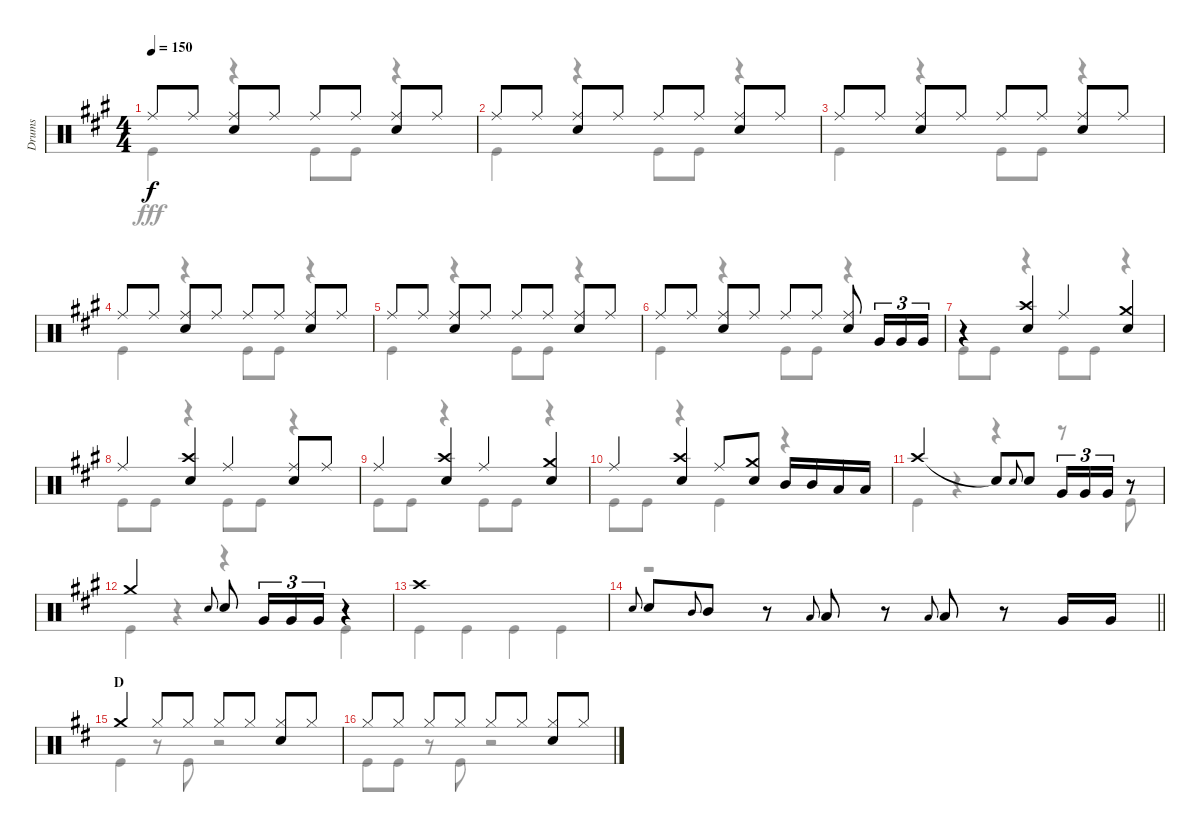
\track ("Drums" "Drums") {instrument percussion}
\staff {score}
\articulation defaults
\voice
\ts (4 4)
\tempo 150
\clef neutral
\ks a "Ride (middle)".8{dy f} "Ride (middle)".8
("Ride (middle)" "Snare (hit) 2").8 "Ride (middle)".8 "Ride (middle)".8 "Ride (middle)".8 ("Ride (middle)" "Snare (hit) 2").8 "Ride (middle)".8 |
"Ride (middle)".8 "Ride (middle)".8 ("Ride (middle)" "Snare (hit) 2").8 "Ride (middle)".8 "Ride (middle)".8 "Ride (middle)".8 ("Ride (middle)" "Snare (hit) 2").8 "Ride (middle)".8 |
"Ride (middle)".8 "Ride (middle)".8 ("Ride (middle)" "Snare (hit) 2").8 "Ride (middle)".8 "Ride (middle)".8 "Ride (middle)".8 ("Ride (middle)" "Snare (hit) 2").8 "Ride (middle)".8 |
"Ride (middle)".8 "Ride (middle)".8 ("Ride (middle)" "Snare (hit) 2").8 "Ride (middle)".8 "Ride (middle)".8 "Ride (middle)".8 ("Ride (middle)" "Snare (hit) 2").8 "Ride (middle)".8 |
"Ride (middle)".8 "Ride (middle)".8 ("Ride (middle)" "Snare (hit) 2").8 "Ride (middle)".8 "Ride (middle)".8 "Ride (middle)".8 ("Ride (middle)" "Snare (hit) 2").8 "Ride (middle)".8 |
"Ride (middle)".8 "Ride (middle)".8 ("Ride (middle)" "Snare (hit) 2").8 "Ride (middle)".8 "Ride (middle)".8 "Ride (middle)".8 ("Ride (middle)" "Snare (hit) 2").8 "Very Low Tom (hit)".16{tu (3 2)} "Very Low Tom (hit)".16{tu (3 2)} "Very Low Tom (hit)".16{tu (3 2)} |
r.4 ("Crash high (hit)" "Snare (hit) 2").4 "Ride (middle)".4 ("Crash medium (hit)" "Snare (hit) 2").4 |
"Ride (middle)".4 ("Crash high (hit)" "Snare (hit) 2").4 "Ride (middle)".4 ("Ride (middle)" "Snare (hit) 2").8 "Ride (middle)".8 |
"Ride (middle)".4 ("Crash high (hit)" "Snare (hit) 2").4 "Ride (middle)".4 ("Crash medium (hit)" "Snare (hit) 2").4 |
"Ride (middle)".4 ("Crash high (hit)" "Snare (hit) 2").4 "Ride (middle)".8 ("Crash medium (hit)" "Snare (hit) 2").8 "Mid Tom (hit)".16 "Mid Tom (hit)".16 "Low Tom (hit)".16 "Low Tom (hit)".16 |
"Crash high (hit)".2 "Snare (hit)"{t}.8 "Snare (hit) 2".8{gr onbeat} "Snare (hit) 2".8 "Very Low Tom (hit)".16{tu (3 2)} "Very Low Tom (hit)".16{tu (3 2)} "Very Low Tom (hit)".16{tu (3 2)} r.8 |
"Crash medium (hit)".2 "Snare (hit) 2".8{gr onbeat} "Snare (hit) 2".8 "Very Low Tom (hit)".16{tu (3 2)} "Very Low Tom (hit)".16{tu (3 2)} "Very Low Tom (hit)".16{tu (3 2)} r.4 |
"Crash high (hit)".1 |
\barLineRight lightlight "Snare (hit) 2".8{gr onbeat} "Snare (hit) 2".8 "Mid Tom (hit)".8{gr onbeat} "Mid Tom (hit)".8
r.8 "Low Tom (hit)".8{gr onbeat} "Low Tom (hit)".8 r.8 "Low Tom (hit)".8{gr onbeat} "Low Tom (hit)".8 r.8 "Very Low Tom (hit)".16 "Very Low Tom (hit)".16 |
\section ("" "D")
\ks d "Crash medium (hit)".4 "Hi-Hat (closed)".8 "Hi-Hat (closed)".8 "Hi-Hat (closed)".8 "Hi-Hat (closed)".8
("Hi-Hat (closed)" "Snare (hit) 2").8 "Hi-Hat (closed)".8 |
"Hi-Hat (closed)".8 "Hi-Hat (closed)".8 "Hi-Hat (closed)".8 "Hi-Hat (closed)".8 "Hi-Hat (closed)".8 "Hi-Hat (closed)".8 ("Hi-Hat (closed)" "Snare (hit) 2").8 "Hi-Hat (closed)".8
\voice
\clef neutral
\ottava regular
\simile none
\ks a "Kick (hit)".4{dy fff}
r.4 "Kick (hit)".8 "Kick (hit)".8 r.4 |
"Kick (hit)".4 r.4 "Kick (hit)".8 "Kick (hit)".8 r.4 |
"Kick (hit)".4 r.4 "Kick (hit)".8 "Kick (hit)".8 r.4 |
"Kick (hit)".4 r.4 "Kick (hit)".8 "Kick (hit)".8 r.4 |
"Kick (hit)".4 r.4 "Kick (hit)".8 "Kick (hit)".8 r.4 |
"Kick (hit)".4 r.4 "Kick (hit)".8 "Kick (hit)".8 r.4 |
"Kick (hit)".8 "Kick (hit)".8 r.4 "Kick (hit)".8 "Kick (hit)".8 r.4 |
"Kick (hit)".8 "Kick (hit)".8 r.4 "Kick (hit)".8 "Kick (hit)".8 r.4 |
"Kick (hit)".8 "Kick (hit)".8 r.4 "Kick (hit)".8 "Kick (hit)".8 r.4 |
"Kick (hit)".8 "Kick (hit)".8 r.4 "Kick (hit)".4 r.4 |
"Kick (hit)".4 r.4 r.4 r.8 "Kick (hit)".8 |
"Kick (hit)".4 r.4 r.4 "Kick (hit)".4 |
"Kick (hit)".4 "Kick (hit)".4 "Kick (hit)".4 "Kick (hit)".4 |
\barLineRight lightlight
r.1 |
\ks d "Kick (hit)".4
r.8 "Kick (hit)".8 r.2 |
"Kick (hit)".8 "Kick (hit)".8 r.8 "Kick (hit)".8 r.2
